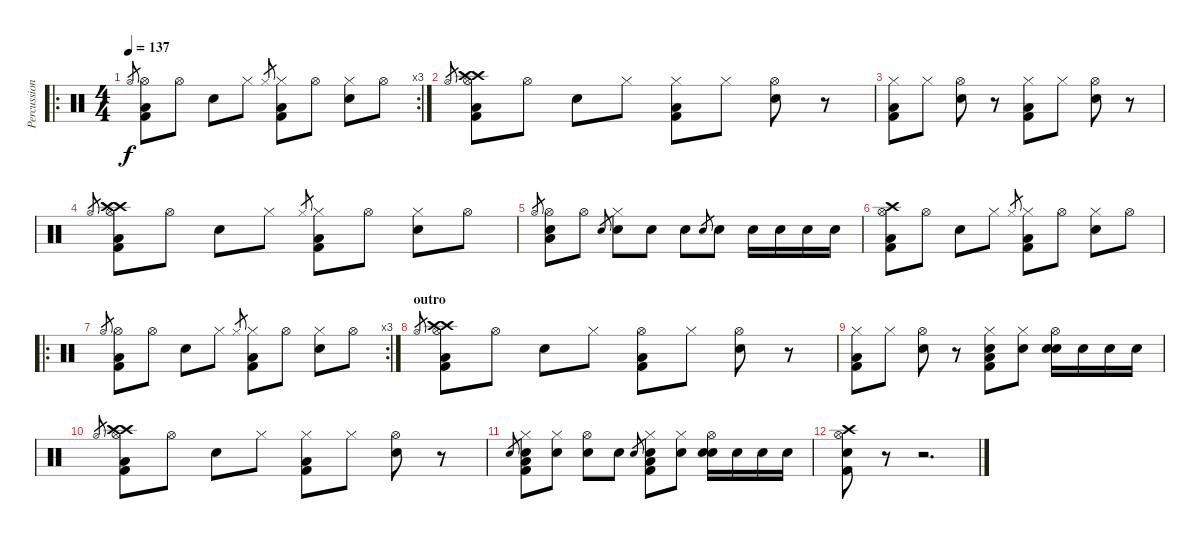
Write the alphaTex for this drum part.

\track ("Percussions" "Percussion") {instrument percussion}
\staff {score}
\articulation defaults
\ro
\rc 3
\ts (4 4)
\tempo 137
\clef neutral
\ks c "Hi-Hat (open)".8{gr dy f}
("Hi-Hat (open)" "Kick (hit) 2" "Low Floor Tom (hit)").8 "Hi-Hat (open)".8 "Snare (hit) 2".8 "Hi-Hat (closed)".8 "Hi-Hat (closed)".8{gr} ("Hi-Hat (closed)" "Kick (hit) 2" "Low Floor Tom (hit)").8 "Hi-Hat (open)".8 ("Hi-Hat (closed)" "Snare (hit) 2").8 "Hi-Hat (open)".8 |
"Hi-Hat (open)".8{gr} ("Hi-Hat (open)" "Crash high (hit)" "Crash high (hit)" "Kick (hit) 2" "Low Floor Tom (hit)").8 "Hi-Hat (open)".8 "Snare (hit) 2".8 "Hi-Hat (closed)".8 ("Hi-Hat (closed)" "Kick (hit) 2" "Low Floor Tom (hit)").8 "Hi-Hat (closed)".8 ("Hi-Hat (open)" "Snare (hit) 2").8 r.8 |
("Hi-Hat (closed)" "Kick (hit) 2" "Low Floor Tom (hit)").8 "Hi-Hat (closed)".8 ("Hi-Hat (open)" "Snare (hit) 2").8 r.8 ("Hi-Hat (closed)" "Kick (hit) 2" "Low Floor Tom (hit)").8 "Hi-Hat (closed)".8 ("Hi-Hat (open)" "Snare (hit) 2").8 r.8 |
"Hi-Hat (open)".8{gr} ("Hi-Hat (open)" "Crash high (hit)" "Crash high (hit)" "Kick (hit) 2" "Low Floor Tom (hit)").8 "Hi-Hat (open)".8 "Snare (hit) 2".8 "Hi-Hat (closed)".8 "Hi-Hat (closed)".8{gr} ("Hi-Hat (closed)" "Kick (hit) 2" "Low Floor Tom (hit)").8 "Hi-Hat (open)".8 ("Hi-Hat (closed)" "Snare (hit) 2").8 "Hi-Hat (open)".8 |
"Hi-Hat (open)".8{gr} ("Hi-Hat (open)" "Snare (hit) 2" "Low Floor Tom (hit)").8 "Hi-Hat (open)".8 "Snare (hit) 2".8{gr} ("Hi-Hat (closed)" "Snare (hit) 2").8 "Snare (hit) 2".8 "Snare (hit) 2".8 "Snare (hit) 2".8{gr} "Snare (hit) 2".8 "Snare (hit) 2".16 "Snare (hit) 2".16 "Snare (hit) 2".16 "Snare (hit) 2".16 |
("Hi-Hat (open)" "Crash high (hit)" "Kick (hit) 2" "Low Floor Tom (hit)").8 "Hi-Hat (open)".8 "Snare (hit) 2".8 "Hi-Hat (closed)".8 "Hi-Hat (closed)".8{gr} ("Hi-Hat (closed)" "Kick (hit) 2" "Low Floor Tom (hit)").8 "Hi-Hat (open)".8 ("Hi-Hat (closed)" "Snare (hit) 2").8 "Hi-Hat (open)".8 |
\ro
\rc 3 "Hi-Hat (open)".8{gr}
("Hi-Hat (open)" "Kick (hit) 2" "Low Floor Tom (hit)").8 "Hi-Hat (open)".8 "Snare (hit) 2".8 "Hi-Hat (closed)".8 "Hi-Hat (closed)".8{gr} ("Hi-Hat (closed)" "Kick (hit) 2" "Low Floor Tom (hit)").8 "Hi-Hat (open)".8 ("Hi-Hat (closed)" "Snare (hit) 2").8 "Hi-Hat (open)".8 |
\section ("" "outro")
"Hi-Hat (open)".8{gr} ("Hi-Hat (open)" "Crash high (hit)" "Crash high (hit)" "Kick (hit) 2" "Low Floor Tom (hit)").8 "Hi-Hat (open)".8 "Hand Clap (hit)".8 "Hi-Hat (closed)".8 ("Hi-Hat (open)" "Kick (hit) 2" "Low Floor Tom (hit)").8 "Hi-Hat (closed)".8 ("Hi-Hat (open)" "Hand Clap (hit)").8 r.8 |
("Hi-Hat (closed)" "Kick (hit) 2" "Low Floor Tom (hit)").8 "Hi-Hat (closed)".8 ("Hi-Hat (open)" "Hand Clap (hit)").8 r.8 ("Hi-Hat (closed)" "Snare (hit) 2" "Kick (hit) 2" "Low Floor Tom (hit)").8 ("Hi-Hat (closed)" "Snare (hit) 2").8 ("Hi-Hat (open)" "Snare (hit) 2" "Hand Clap (hit)").16 "Snare (hit) 2".16 "Snare (hit) 2".16 "Snare (hit) 2".16 |
"Hi-Hat (open)".8{gr} ("Hi-Hat (open)" "Crash high (hit)" "Crash high (hit)" "Kick (hit) 2" "Low Floor Tom (hit)").8 "Hi-Hat (open)".8 "Hand Clap (hit)".8 "Hi-Hat (closed)".8 ("Hi-Hat (closed)" "Kick (hit) 2" "Low Floor Tom (hit)").8 "Hi-Hat (closed)".8 ("Hi-Hat (open)" "Hand Clap (hit)").8 r.8 |
"Snare (hit) 2".8{gr} ("Hi-Hat (closed)" "Snare (hit) 2" "Kick (hit) 2" "Low Floor Tom (hit)").8 ("Hi-Hat (closed)" "Snare (hit) 2").8 ("Hi-Hat (open)" "Hand Clap (hit)").8 "Snare (hit) 2".8 "Snare (hit) 2".8{gr} ("Hi-Hat (closed)" "Snare (hit) 2" "Kick (hit) 2" "Low Floor Tom (hit)").8 ("Hi-Hat (closed)" "Snare (hit) 2").8 ("Hi-Hat (open)" "Snare (hit) 2" "Snare (hit) 2").16 "Snare (hit) 2".16 "Snare (hit) 2".16 "Snare (hit) 2".16 |
("Crash high (hit)" "Kick (hit) 2" "Snare (hit) 2" "Hi-Hat (open)").8 r.8 r.2{d}
